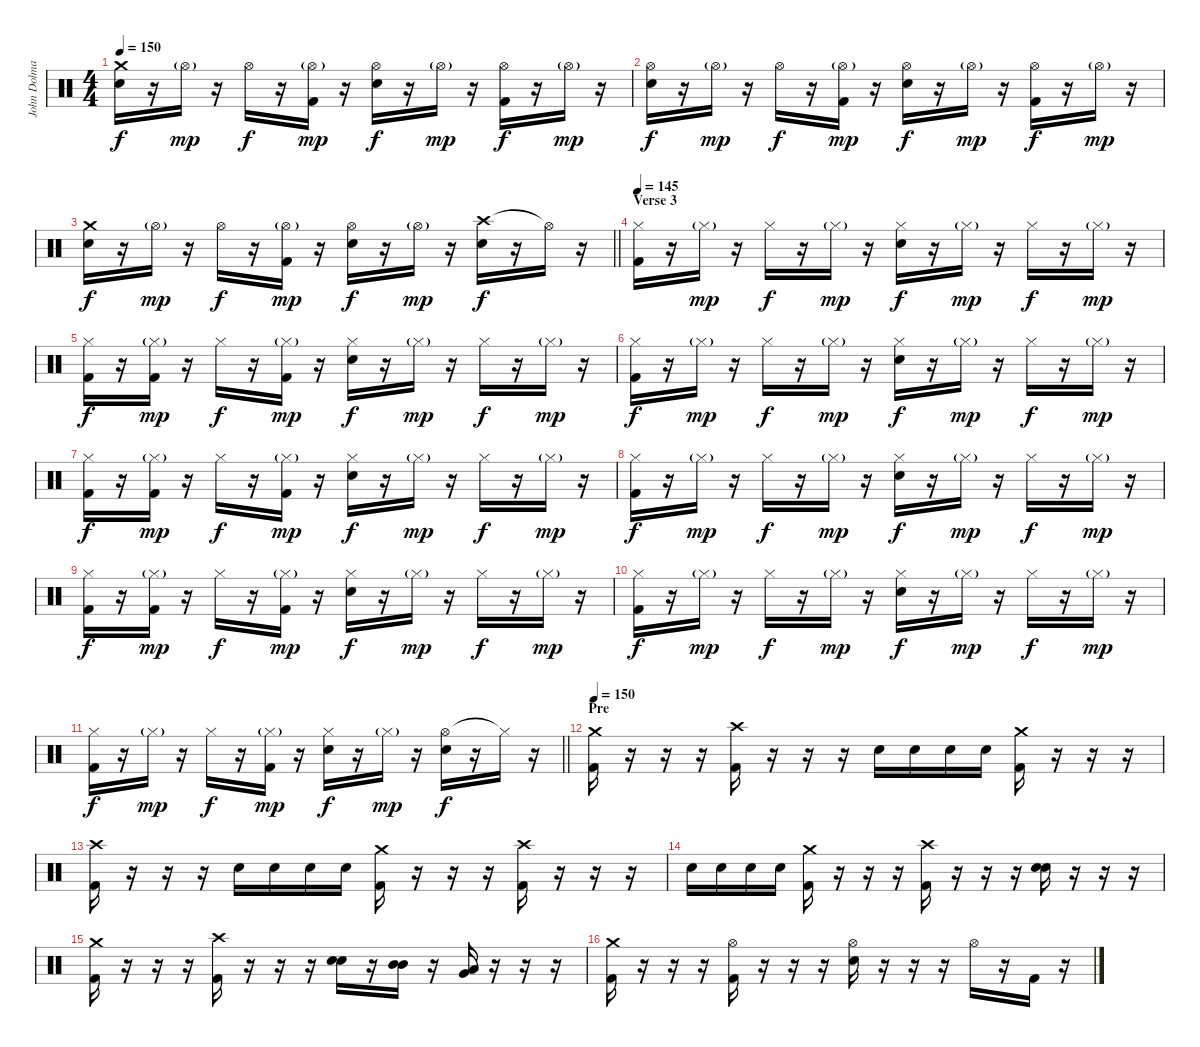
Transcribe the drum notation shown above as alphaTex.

\track ("John Dolmayan" "John Dolma") {instrument percussion}
\staff {score}
\articulation defaults
\ts (4 4)
\tempo 150
\clef neutral
\ks c
("Crash medium (hit)" "Electric Snare (hit)").16{dy f} r.16 "Hi-Hat (open)"{g}.16{dy mp} r.16 "Hi-Hat (open)".16{dy f} r.16 ("Hi-Hat (open)"{g} "Kick (hit) 2").16{dy mp} r.16 ("Hi-Hat (open)" "Electric Snare (hit)").16{dy f} r.16 "Hi-Hat (open)"{g}.16{dy mp} r.16 ("Hi-Hat (open)" "Kick (hit) 2").16{dy f} r.16 "Hi-Hat (open)"{g}.16{dy mp} r.16 |
("Hi-Hat (open)" "Electric Snare (hit)").16{dy f} r.16 "Hi-Hat (open)"{g}.16{dy mp} r.16 "Hi-Hat (open)".16{dy f} r.16 ("Hi-Hat (open)"{g} "Kick (hit) 2").16{dy mp} r.16 ("Hi-Hat (open)" "Electric Snare (hit)").16{dy f} r.16 "Hi-Hat (open)"{g}.16{dy mp} r.16 ("Hi-Hat (open)" "Kick (hit) 2").16{dy f} r.16 "Hi-Hat (open)"{g}.16{dy mp} r.16 |
\barLineRight lightlight
("Crash medium (hit)" "Electric Snare (hit)").16{dy f} r.16 "Hi-Hat (open)"{g}.16{dy mp} r.16 "Hi-Hat (open)".16{dy f} r.16 ("Hi-Hat (open)"{g} "Kick (hit) 2").16{dy mp} r.16 ("Hi-Hat (open)" "Electric Snare (hit)").16{dy f} r.16 "Hi-Hat (open)"{g}.16{dy mp} r.16 ("Crash high (hit)" "Electric Snare (hit)").16{dy f} r.16 "Hi-Hat (open)"{t}.16 r.16 |
\section ("" "Verse 3")
\tempo 145
("Hi-Hat (closed)" "Kick (hit) 2").16 r.16 "Hi-Hat (closed)"{g}.16{dy mp} r.16 "Hi-Hat (closed)".16{dy f} r.16 "Hi-Hat (closed)"{g}.16{dy mp} r.16 ("Hi-Hat (closed)" "Electric Snare (hit)").16{dy f} r.16 "Hi-Hat (closed)"{g}.16{dy mp} r.16 "Hi-Hat (closed)".16{dy f} r.16 "Hi-Hat (closed)"{g}.16{dy mp} r.16 |
("Hi-Hat (closed)" "Kick (hit) 2").16{dy f} r.16 ("Hi-Hat (closed)"{g} "Kick (hit) 2").16{dy mp} r.16 "Hi-Hat (closed)".16{dy f} r.16 ("Hi-Hat (closed)"{g} "Kick (hit) 2").16{dy mp} r.16 ("Hi-Hat (closed)" "Electric Snare (hit)").16{dy f} r.16 "Hi-Hat (closed)"{g}.16{dy mp} r.16 "Hi-Hat (closed)".16{dy f} r.16 "Hi-Hat (closed)"{g}.16{dy mp} r.16 |
("Hi-Hat (closed)" "Kick (hit) 2").16{dy f} r.16 "Hi-Hat (closed)"{g}.16{dy mp} r.16 "Hi-Hat (closed)".16{dy f} r.16 "Hi-Hat (closed)"{g}.16{dy mp} r.16 ("Hi-Hat (closed)" "Electric Snare (hit)").16{dy f} r.16 "Hi-Hat (closed)"{g}.16{dy mp} r.16 "Hi-Hat (closed)".16{dy f} r.16 "Hi-Hat (closed)"{g}.16{dy mp} r.16 |
("Hi-Hat (closed)" "Kick (hit) 2").16{dy f} r.16 ("Hi-Hat (closed)"{g} "Kick (hit) 2").16{dy mp} r.16 "Hi-Hat (closed)".16{dy f} r.16 ("Hi-Hat (closed)"{g} "Kick (hit) 2").16{dy mp} r.16 ("Hi-Hat (closed)" "Electric Snare (hit)").16{dy f} r.16 "Hi-Hat (closed)"{g}.16{dy mp} r.16 "Hi-Hat (closed)".16{dy f} r.16 "Hi-Hat (closed)"{g}.16{dy mp} r.16 |
("Hi-Hat (closed)" "Kick (hit) 2").16{dy f} r.16 "Hi-Hat (closed)"{g}.16{dy mp} r.16 "Hi-Hat (closed)".16{dy f} r.16 "Hi-Hat (closed)"{g}.16{dy mp} r.16 ("Hi-Hat (closed)" "Electric Snare (hit)").16{dy f} r.16 "Hi-Hat (closed)"{g}.16{dy mp} r.16 "Hi-Hat (closed)".16{dy f} r.16 "Hi-Hat (closed)"{g}.16{dy mp} r.16 |
("Hi-Hat (closed)" "Kick (hit) 2").16{dy f} r.16 ("Hi-Hat (closed)"{g} "Kick (hit) 2").16{dy mp} r.16 "Hi-Hat (closed)".16{dy f} r.16 ("Hi-Hat (closed)"{g} "Kick (hit) 2").16{dy mp} r.16 ("Hi-Hat (closed)" "Electric Snare (hit)").16{dy f} r.16 "Hi-Hat (closed)"{g}.16{dy mp} r.16 "Hi-Hat (closed)".16{dy f} r.16 "Hi-Hat (closed)"{g}.16{dy mp} r.16 |
("Hi-Hat (closed)" "Kick (hit) 2").16{dy f} r.16 "Hi-Hat (closed)"{g}.16{dy mp} r.16 "Hi-Hat (closed)".16{dy f} r.16 "Hi-Hat (closed)"{g}.16{dy mp} r.16 ("Hi-Hat (closed)" "Electric Snare (hit)").16{dy f} r.16 "Hi-Hat (closed)"{g}.16{dy mp} r.16 "Hi-Hat (closed)".16{dy f} r.16 "Hi-Hat (closed)"{g}.16{dy mp} r.16 |
\barLineRight lightlight
("Hi-Hat (closed)" "Kick (hit) 2").16{dy f} r.16 "Hi-Hat (closed)"{g}.16{dy mp} r.16 "Hi-Hat (closed)".16{dy f} r.16 ("Hi-Hat (closed)"{g} "Kick (hit) 2").16{dy mp} r.16 ("Hi-Hat (closed)" "Electric Snare (hit)").16{dy f} r.16 "Hi-Hat (closed)"{g}.16{dy mp} r.16 ("Hi-Hat (open)" "Electric Snare (hit)").16{dy f} r.16 "Hi-Hat (closed)"{t}.16 r.16 |
\section ("" "Pre")
\tempo 150
("Crash medium (hit)" "Kick (hit) 2").16 r.16 r.16 r.16 ("Crash high (hit)" "Kick (hit) 2").16 r.16 r.16 r.16 "Electric Snare (hit)".16 "Electric Snare (hit)".16 "Electric Snare (hit)".16 "Electric Snare (hit)".16 ("Crash medium (hit)" "Kick (hit) 2").16 r.16 r.16 r.16 |
("Crash high (hit)" "Kick (hit) 2").16 r.16 r.16 r.16 "Electric Snare (hit)".16 "Electric Snare (hit)".16 "Electric Snare (hit)".16 "Electric Snare (hit)".16 ("Crash medium (hit)" "Kick (hit) 2").16 r.16 r.16 r.16 ("Crash high (hit)" "Kick (hit) 2").16 r.16 r.16 r.16 |
"Electric Snare (hit)".16 "Electric Snare (hit)".16 "Electric Snare (hit)".16 "Electric Snare (hit)".16 ("Crash medium (hit)" "Kick (hit) 2").16 r.16 r.16 r.16 ("Crash high (hit)" "Kick (hit) 2").16 r.16 r.16 r.16 ("Electric Snare (hit)" "Electric Snare (hit)").16 r.16 r.16 r.16 |
("Crash medium (hit)" "Kick (hit) 2").16 r.16 r.16 r.16 ("Crash high (hit)" "Kick (hit) 2").16 r.16 r.16 r.16 ("Electric Snare (hit)" "Electric Snare (hit)").16 r.16 ("Mid Tom (hit)" "Mid Tom (hit)").16 r.16 ("Low Tom (hit)" "Very Low Tom (hit)").16 r.16 r.16 r.16 |
("Crash medium (hit)" "Kick (hit) 2").16 r.16 r.16 r.16 ("Hi-Hat (open)" "Kick (hit) 2").16 r.16 r.16 r.16 ("Hi-Hat (open)" "Electric Snare (hit)").16 r.16 r.16 r.16 "Hi-Hat (open)".16 r.16 "Kick (hit) 2".16 r.16
